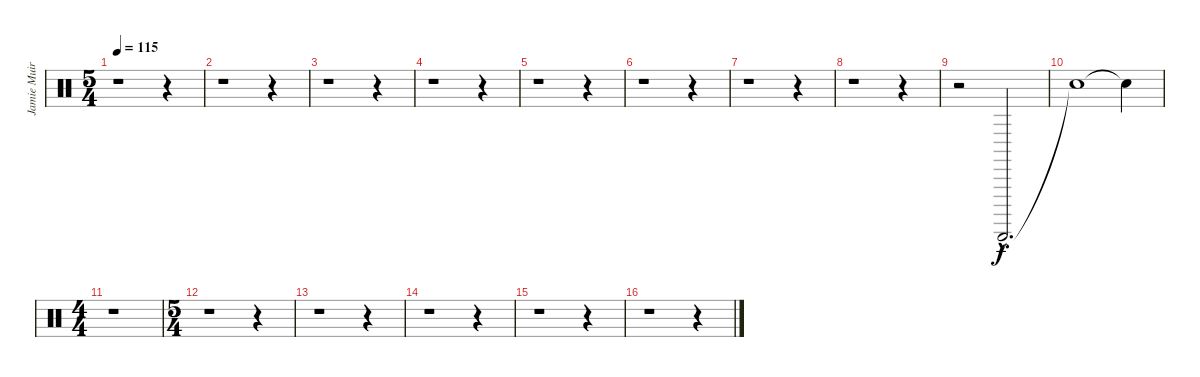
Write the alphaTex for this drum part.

\track ("Jamie Muir percussion" "Jamie Muir") {instrument percussion}
\staff {score}
\articulation defaults
\ts (5 4)
\tempo 115
\clef neutral
\ks c
r.1{dy f} r.4 |
r.1 r.4 |
r.1 r.4 |
r.1 r.4 |
r.1 r.4 |
r.1 r.4 |
r.1 r.4 |
r.1 r.4 |
r.2 "Guiro (scrap-return)"{hac}.2{d} |
"Snare (hit)"{t}.1 "Snare (hit)"{t}.4 |
\ts (4 4)
r.1 |
\ts (5 4)
r.1 r.4 |
r.1 r.4 |
r.1 r.4 |
r.1 r.4 |
r.1 r.4
